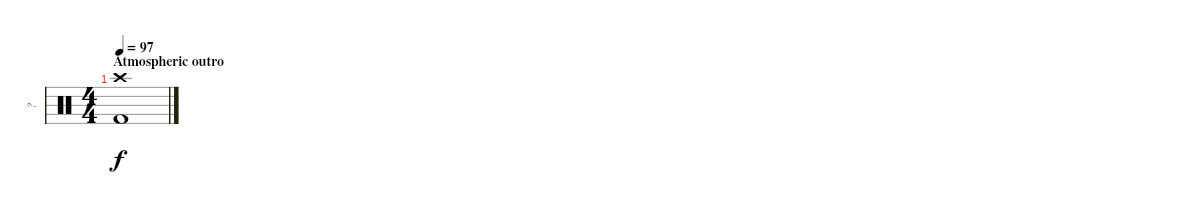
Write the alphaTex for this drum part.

\track ("?" "?") {instrument percussion}
\staff {score}
\articulation defaults
\ts (4 4)
\section ("" "Atmospheric outro")
\tempo 97
\clef neutral
\ks c
("Crash high (hit)" "Kick (hit) 2").1{dy f}
